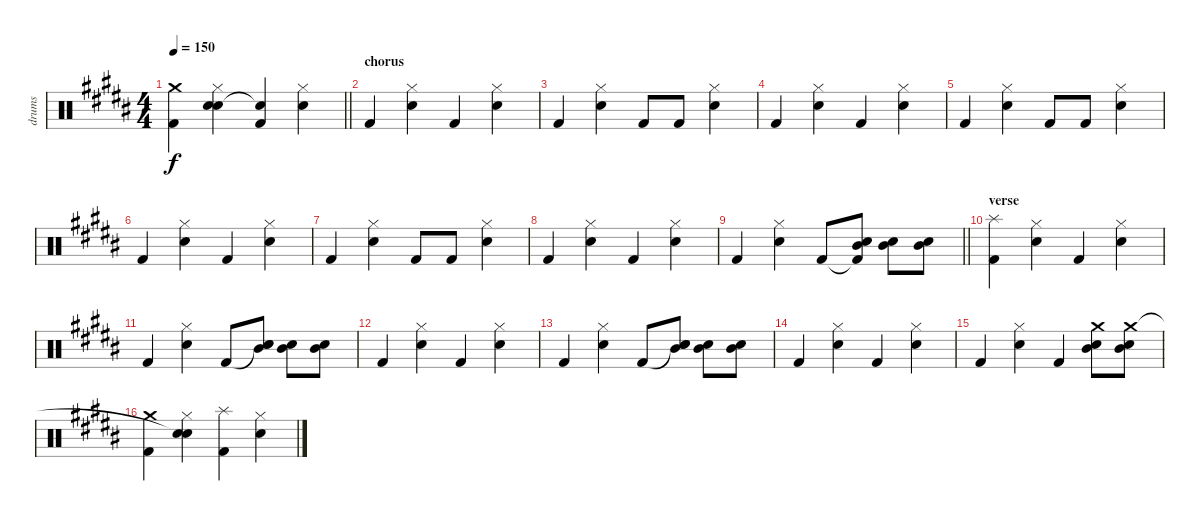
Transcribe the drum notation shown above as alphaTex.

\track ("drums" "drums") {instrument percussion}
\staff {score}
\articulation defaults
\ts (4 4)
\tempo 150
\clef neutral
\barLineRight lightlight
\ks b
("Kick (hit) 2" "Crash medium (hit)").4{dy f} ("Hi-Hat (closed)" "Electric Snare (hit)" "Snare (hit)"{t}).4 ("Kick (hit) 2" "Snare (hit)"{t}).4 ("Hi-Hat (closed)" "Electric Snare (hit)").4 |
\section ("" "chorus")
"Kick (hit) 2".4 ("Hi-Hat (closed)" "Electric Snare (hit)").4 "Kick (hit) 2".4 ("Hi-Hat (closed)" "Electric Snare (hit)").4 |
"Kick (hit) 2".4 ("Hi-Hat (closed)" "Electric Snare (hit)").4 "Kick (hit) 2".8 "Kick (hit) 2".8 ("Hi-Hat (closed)" "Electric Snare (hit)").4 |
"Kick (hit) 2".4 ("Hi-Hat (closed)" "Electric Snare (hit)").4 "Kick (hit) 2".4 ("Hi-Hat (closed)" "Electric Snare (hit)").4 |
"Kick (hit) 2".4 ("Hi-Hat (closed)" "Electric Snare (hit)").4 "Kick (hit) 2".8 "Kick (hit) 2".8 ("Hi-Hat (closed)" "Electric Snare (hit)").4 |
"Kick (hit) 2".4 ("Hi-Hat (closed)" "Electric Snare (hit)").4 "Kick (hit) 2".4 ("Hi-Hat (closed)" "Electric Snare (hit)").4 |
"Kick (hit) 2".4 ("Hi-Hat (closed)" "Electric Snare (hit)").4 "Kick (hit) 2".8 "Kick (hit) 2".8 ("Hi-Hat (closed)" "Electric Snare (hit)").4 |
"Kick (hit) 2".4 ("Hi-Hat (closed)" "Electric Snare (hit)").4 "Kick (hit) 2".4 ("Hi-Hat (closed)" "Electric Snare (hit)").4 |
\barLineRight lightlight "Kick (hit) 2".4
("Hi-Hat (closed)" "Electric Snare (hit)").4 "Kick (hit) 2".8 ("Kick (hit) 2"{t} "Electric Snare (hit)" "Mid Tom (hit)").8 ("Electric Snare (hit)" "Mid Tom (hit)").8 ("Electric Snare (hit)" "Mid Tom (hit)").8 |
\section ("" "verse")
("Kick (hit) 2" "Splash (hit)").4 ("Hi-Hat (closed)" "Electric Snare (hit)").4 "Kick (hit) 2".4 ("Hi-Hat (closed)" "Electric Snare (hit)").4 |
"Kick (hit) 2".4 ("Hi-Hat (closed)" "Electric Snare (hit)").4 "Kick (hit) 2".8 ("Snare (hit)"{t} "Electric Snare (hit)" "Mid Tom (hit)").8 ("Mid Tom (hit)" "Electric Snare (hit)").8 ("Mid Tom (hit)" "Electric Snare (hit)").8 |
"Kick (hit) 2".4 ("Hi-Hat (closed)" "Electric Snare (hit)").4 "Kick (hit) 2".4 ("Hi-Hat (closed)" "Electric Snare (hit)").4 |
"Kick (hit) 2".4 ("Hi-Hat (closed)" "Electric Snare (hit)").4 "Kick (hit) 2".8 ("Snare (hit)"{t} "Electric Snare (hit)" "Mid Tom (hit)").8 ("Mid Tom (hit)" "Electric Snare (hit)").8 ("Mid Tom (hit)" "Electric Snare (hit)").8 |
"Kick (hit) 2".4 ("Hi-Hat (closed)" "Electric Snare (hit)").4 "Kick (hit) 2".4 ("Hi-Hat (closed)" "Electric Snare (hit)").4 |
"Kick (hit) 2".4 ("Hi-Hat (closed)" "Electric Snare (hit)").4 "Kick (hit) 2".4 ("Mid Tom (hit)" "Electric Snare (hit)" "Crash medium (hit)").8 ("Mid Tom (hit)" "Electric Snare (hit)" "Crash medium (hit)").8 |
("Kick (hit) 2" "Crash medium (hit)").4 ("Hi-Hat (closed)" "Electric Snare (hit)" "Snare (hit)"{t}).4 ("Kick (hit) 2" "Splash (hit)").4 ("Hi-Hat (closed)" "Electric Snare (hit)").4
